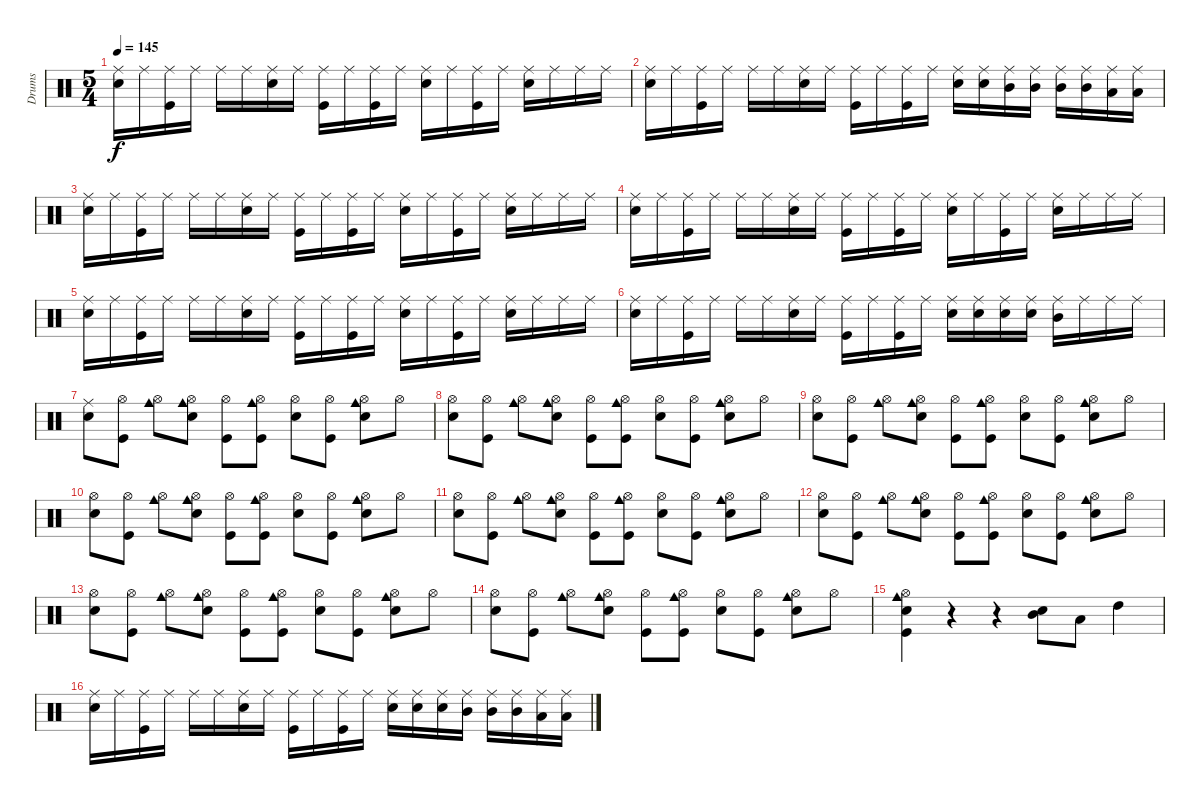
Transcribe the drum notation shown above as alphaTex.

\track ("Drums" "Drums") {instrument percussion}
\staff {score}
\articulation defaults
\ts (5 4)
\tempo 145
\clef neutral
\ks c
("Ride (middle)" "Snare (hit) 2").16{dy f} "Ride (middle)".16 ("Ride (middle)" "Kick (hit)").16 "Ride (middle)".16 "Ride (middle)".16 "Ride (middle)".16 ("Ride (middle)" "Snare (hit) 2").16 "Ride (middle)".16 ("Ride (middle)" "Kick (hit)").16 "Ride (middle)".16 ("Ride (middle)" "Kick (hit)").16 "Ride (middle)".16 ("Ride (middle)" "Snare (hit) 2").16 "Ride (middle)".16 ("Ride (middle)" "Kick (hit)").16 "Ride (middle)".16 ("Ride (middle)" "Snare (hit) 2").16 "Ride (middle)".16 "Ride (middle)".16 "Ride (middle)".16 |
("Ride (middle)" "Snare (hit) 2").16 "Ride (middle)".16 ("Ride (middle)" "Kick (hit)").16 "Ride (middle)".16 "Ride (middle)".16 "Ride (middle)".16 ("Ride (middle)" "Snare (hit) 2").16 "Ride (middle)".16 ("Ride (middle)" "Kick (hit)").16 "Ride (middle)".16 ("Ride (middle)" "Kick (hit)").16 "Ride (middle)".16 ("Ride (middle)" "Snare (hit) 2").16 ("Ride (middle)" "Snare (hit) 2").16 ("Ride (middle)" "Mid Tom (hit)").16 ("Ride (middle)" "Mid Tom (hit)").16 ("Ride (middle)" "Mid Tom (hit)").16 ("Ride (middle)" "Mid Tom (hit)").16 ("Ride (middle)" "Low Tom (hit)").16 ("Ride (middle)" "Low Tom (hit)").16 |
("Ride (middle)" "Snare (hit) 2").16 "Ride (middle)".16 ("Ride (middle)" "Kick (hit)").16 "Ride (middle)".16 "Ride (middle)".16 "Ride (middle)".16 ("Ride (middle)" "Snare (hit) 2").16 "Ride (middle)".16 ("Ride (middle)" "Kick (hit)").16 "Ride (middle)".16 ("Ride (middle)" "Kick (hit)").16 "Ride (middle)".16 ("Ride (middle)" "Snare (hit) 2").16 "Ride (middle)".16 ("Ride (middle)" "Kick (hit)").16 "Ride (middle)".16 ("Ride (middle)" "Snare (hit) 2").16 "Ride (middle)".16 "Ride (middle)".16 "Ride (middle)".16 |
("Ride (middle)" "Snare (hit) 2").16 "Ride (middle)".16 ("Ride (middle)" "Kick (hit)").16 "Ride (middle)".16 "Ride (middle)".16 "Ride (middle)".16 ("Ride (middle)" "Snare (hit) 2").16 "Ride (middle)".16 ("Ride (middle)" "Kick (hit)").16 "Ride (middle)".16 ("Ride (middle)" "Kick (hit)").16 "Ride (middle)".16 ("Ride (middle)" "Snare (hit) 2").16 "Ride (middle)".16 ("Ride (middle)" "Kick (hit)").16 "Ride (middle)".16 ("Ride (middle)" "Snare (hit) 2").16 "Ride (middle)".16 "Ride (middle)".16 "Ride (middle)".16 |
("Ride (middle)" "Snare (hit) 2").16 "Ride (middle)".16 ("Ride (middle)" "Kick (hit)").16 "Ride (middle)".16 "Ride (middle)".16 "Ride (middle)".16 ("Ride (middle)" "Snare (hit) 2").16 "Ride (middle)".16 ("Ride (middle)" "Kick (hit)").16 "Ride (middle)".16 ("Ride (middle)" "Kick (hit)").16 "Ride (middle)".16 ("Ride (middle)" "Snare (hit) 2").16 "Ride (middle)".16 ("Ride (middle)" "Kick (hit)").16 "Ride (middle)".16 ("Ride (middle)" "Snare (hit) 2").16 "Ride (middle)".16 "Ride (middle)".16 "Ride (middle)".16 |
("Ride (middle)" "Snare (hit) 2").16 "Ride (middle)".16 ("Ride (middle)" "Kick (hit)").16 "Ride (middle)".16 "Ride (middle)".16 "Ride (middle)".16 ("Ride (middle)" "Snare (hit) 2").16 "Ride (middle)".16 ("Ride (middle)" "Kick (hit)").16 "Ride (middle)".16 ("Ride (middle)" "Kick (hit)").16 "Ride (middle)".16 ("Ride (middle)" "Snare (hit) 2").16 ("Ride (middle)" "Snare (hit) 2").16 ("Ride (middle)" "Snare (hit) 2").16 ("Ride (middle)" "Snare (hit) 2").16 ("Ride (middle)" "Mid Tom (hit)").16 "Ride (middle)".16 "Ride (middle)".16 "Ride (middle)".16 |
("Ride (middle)" "Snare (hit) 2").8 ("Hi-Hat (open)" "Kick (hit)").8 ("Hi-Hat (open)" "Cowbell medium (hit)").8 ("Hi-Hat (open)" "Cowbell medium (hit)" "Snare (hit) 2").8 ("Hi-Hat (open)" "Kick (hit)").8 ("Hi-Hat (open)" "Cowbell medium (hit)" "Kick (hit)").8 ("Hi-Hat (open)" "Snare (hit) 2").8 ("Hi-Hat (open)" "Kick (hit)").8 ("Hi-Hat (open)" "Cowbell medium (hit)" "Snare (hit) 2").8 "Hi-Hat (open)".8 |
("Hi-Hat (open)" "Snare (hit) 2").8 ("Hi-Hat (open)" "Kick (hit)").8 ("Hi-Hat (open)" "Cowbell medium (hit)").8 ("Hi-Hat (open)" "Cowbell medium (hit)" "Snare (hit) 2").8 ("Hi-Hat (open)" "Kick (hit)").8 ("Hi-Hat (open)" "Cowbell medium (hit)" "Kick (hit)").8 ("Hi-Hat (open)" "Snare (hit) 2").8 ("Hi-Hat (open)" "Kick (hit)").8 ("Hi-Hat (open)" "Cowbell medium (hit)" "Snare (hit) 2").8 "Hi-Hat (open)".8 |
("Hi-Hat (open)" "Snare (hit) 2").8 ("Hi-Hat (open)" "Kick (hit)").8 ("Hi-Hat (open)" "Cowbell medium (hit)").8 ("Hi-Hat (open)" "Cowbell medium (hit)" "Snare (hit) 2").8 ("Hi-Hat (open)" "Kick (hit)").8 ("Hi-Hat (open)" "Cowbell medium (hit)" "Kick (hit)").8 ("Hi-Hat (open)" "Snare (hit) 2").8 ("Hi-Hat (open)" "Kick (hit)").8 ("Hi-Hat (open)" "Cowbell medium (hit)" "Snare (hit) 2").8 "Hi-Hat (open)".8 |
("Hi-Hat (open)" "Snare (hit) 2").8 ("Hi-Hat (open)" "Kick (hit)").8 ("Hi-Hat (open)" "Cowbell medium (hit)").8 ("Hi-Hat (open)" "Cowbell medium (hit)" "Snare (hit) 2").8 ("Hi-Hat (open)" "Kick (hit)").8 ("Hi-Hat (open)" "Cowbell medium (hit)" "Kick (hit)").8 ("Hi-Hat (open)" "Snare (hit) 2").8 ("Hi-Hat (open)" "Kick (hit)").8 ("Hi-Hat (open)" "Cowbell medium (hit)" "Snare (hit) 2").8 "Hi-Hat (open)".8 |
("Hi-Hat (open)" "Snare (hit) 2").8 ("Hi-Hat (open)" "Kick (hit)").8 ("Hi-Hat (open)" "Cowbell medium (hit)").8 ("Hi-Hat (open)" "Cowbell medium (hit)" "Snare (hit) 2").8 ("Hi-Hat (open)" "Kick (hit)").8 ("Hi-Hat (open)" "Cowbell medium (hit)" "Kick (hit)").8 ("Hi-Hat (open)" "Snare (hit) 2").8 ("Hi-Hat (open)" "Kick (hit)").8 ("Hi-Hat (open)" "Cowbell medium (hit)" "Snare (hit) 2").8 "Hi-Hat (open)".8 |
("Hi-Hat (open)" "Snare (hit) 2").8 ("Hi-Hat (open)" "Kick (hit)").8 ("Hi-Hat (open)" "Cowbell medium (hit)").8 ("Hi-Hat (open)" "Cowbell medium (hit)" "Snare (hit) 2").8 ("Hi-Hat (open)" "Kick (hit)").8 ("Hi-Hat (open)" "Cowbell medium (hit)" "Kick (hit)").8 ("Hi-Hat (open)" "Snare (hit) 2").8 ("Hi-Hat (open)" "Kick (hit)").8 ("Hi-Hat (open)" "Cowbell medium (hit)" "Snare (hit) 2").8 "Hi-Hat (open)".8 |
("Hi-Hat (open)" "Snare (hit) 2").8 ("Hi-Hat (open)" "Kick (hit)").8 ("Hi-Hat (open)" "Cowbell medium (hit)").8 ("Hi-Hat (open)" "Cowbell medium (hit)" "Snare (hit) 2").8 ("Hi-Hat (open)" "Kick (hit)").8 ("Hi-Hat (open)" "Cowbell medium (hit)" "Kick (hit)").8 ("Hi-Hat (open)" "Snare (hit) 2").8 ("Hi-Hat (open)" "Kick (hit)").8 ("Hi-Hat (open)" "Cowbell medium (hit)" "Snare (hit) 2").8 "Hi-Hat (open)".8 |
("Hi-Hat (open)" "Snare (hit) 2").8 ("Hi-Hat (open)" "Kick (hit)").8 ("Hi-Hat (open)" "Cowbell medium (hit)").8 ("Hi-Hat (open)" "Cowbell medium (hit)" "Snare (hit) 2").8 ("Hi-Hat (open)" "Kick (hit)").8 ("Hi-Hat (open)" "Cowbell medium (hit)" "Kick (hit)").8 ("Hi-Hat (open)" "Snare (hit) 2").8 ("Hi-Hat (open)" "Kick (hit)").8 ("Hi-Hat (open)" "Cowbell medium (hit)" "Snare (hit) 2").8 "Hi-Hat (open)".8 |
("Hi-Hat (open)" "Cowbell medium (hit)" "Snare (hit) 2" "Kick (hit)").4 r.4 r.4 ("Snare (hit) 2" "Mid Tom (hit)").8 "Low Tom (hit)".8 "High Tom (hit)".4 |
("Ride (middle)" "Snare (hit) 2").16 "Ride (middle)".16 ("Ride (middle)" "Kick (hit)").16 "Ride (middle)".16 "Ride (middle)".16 "Ride (middle)".16 ("Ride (middle)" "Snare (hit) 2").16 "Ride (middle)".16 ("Ride (middle)" "Kick (hit)").16 "Ride (middle)".16 ("Ride (middle)" "Kick (hit)").16 "Ride (middle)".16 ("Ride (middle)" "Snare (hit) 2").16 ("Ride (middle)" "Snare (hit) 2").16 ("Ride (middle)" "Snare (hit) 2").16 ("Ride (middle)" "Mid Tom (hit)").16 ("Ride (middle)" "Mid Tom (hit)").16 ("Ride (middle)" "Mid Tom (hit)").16 ("Ride (middle)" "Low Tom (hit)").16 ("Ride (middle)" "Low Tom (hit)").16
